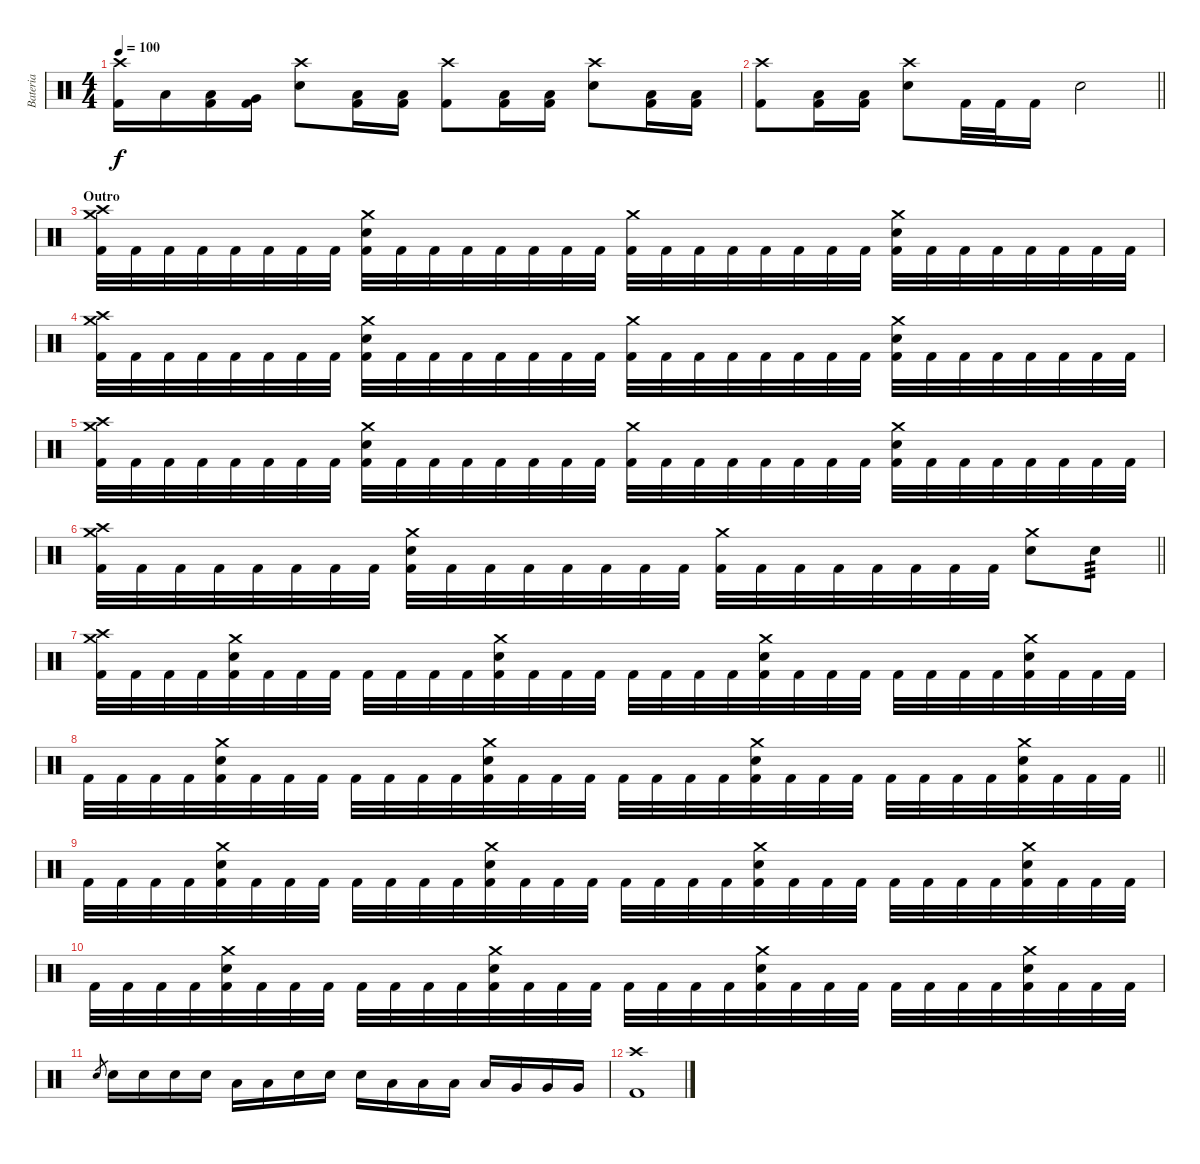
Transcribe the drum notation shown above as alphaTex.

\track ("Bateria" "Bateria") {instrument percussion}
\staff {score}
\articulation defaults
\ts (4 4)
\tempo 100
\clef neutral
\ks c
("Crash high (hit)" "Kick (hit) 2").16{dy f} "Low Tom (hit)".16 ("Low Tom (hit)" "Kick (hit) 2").16 ("Very Low Tom (hit)" "Kick (hit) 2").16 ("Crash high (hit)" "Snare (hit) 2").8 ("Low Tom (hit)" "Kick (hit) 2").16 ("Low Floor Tom (hit)" "Kick (hit) 2").16 ("Crash high (hit)" "Kick (hit) 2").8 ("Low Tom (hit)" "Kick (hit) 2").16 ("Low Floor Tom (hit)" "Kick (hit) 2").16 ("Crash high (hit)" "Snare (hit) 2").8 ("Low Tom (hit)" "Kick (hit) 2").16 ("Low Floor Tom (hit)" "Kick (hit) 2").16 |
\barLineRight lightlight
("Crash high (hit)" "Kick (hit) 2").8 ("Low Tom (hit)" "Kick (hit) 2").16 ("Low Floor Tom (hit)" "Kick (hit) 2").16 ("Crash high (hit)" "Snare (hit) 2").8 "Kick (hit) 2".32 "Kick (hit) 2".32 "Kick (hit) 2".16 "Snare (hit) 2".2 |
\section ("" "Outro")
("Crash high (hit)" "Crash medium (hit)" "Kick (hit) 2").32 "Kick (hit) 2".32 "Kick (hit) 2".32 "Kick (hit) 2".32 "Kick (hit) 2".32 "Kick (hit) 2".32 "Kick (hit) 2".32 "Kick (hit) 2".32 ("Crash medium (hit)" "Snare (hit) 2" "Kick (hit) 2").32 "Kick (hit) 2".32 "Kick (hit) 2".32 "Kick (hit) 2".32 "Kick (hit) 2".32 "Kick (hit) 2".32 "Kick (hit) 2".32 "Kick (hit) 2".32 ("Crash medium (hit)" "Kick (hit) 2").32 "Kick (hit) 2".32 "Kick (hit) 2".32 "Kick (hit) 2".32 "Kick (hit) 2".32 "Kick (hit) 2".32 "Kick (hit) 2".32 "Kick (hit) 2".32 ("Crash medium (hit)" "Snare (hit) 2" "Kick (hit) 2").32 "Kick (hit) 2".32 "Kick (hit) 2".32 "Kick (hit) 2".32 "Kick (hit) 2".32 "Kick (hit) 2".32 "Kick (hit) 2".32 "Kick (hit) 2".32 |
("Crash high (hit)" "Crash medium (hit)" "Kick (hit) 2").32 "Kick (hit) 2".32 "Kick (hit) 2".32 "Kick (hit) 2".32 "Kick (hit) 2".32 "Kick (hit) 2".32 "Kick (hit) 2".32 "Kick (hit) 2".32 ("Crash medium (hit)" "Snare (hit) 2" "Kick (hit) 2").32 "Kick (hit) 2".32 "Kick (hit) 2".32 "Kick (hit) 2".32 "Kick (hit) 2".32 "Kick (hit) 2".32 "Kick (hit) 2".32 "Kick (hit) 2".32 ("Crash medium (hit)" "Kick (hit) 2").32 "Kick (hit) 2".32 "Kick (hit) 2".32 "Kick (hit) 2".32 "Kick (hit) 2".32 "Kick (hit) 2".32 "Kick (hit) 2".32 "Kick (hit) 2".32 ("Crash medium (hit)" "Snare (hit) 2" "Kick (hit) 2").32 "Kick (hit) 2".32 "Kick (hit) 2".32 "Kick (hit) 2".32 "Kick (hit) 2".32 "Kick (hit) 2".32 "Kick (hit) 2".32 "Kick (hit) 2".32 |
("Crash high (hit)" "Crash medium (hit)" "Kick (hit) 2").32 "Kick (hit) 2".32 "Kick (hit) 2".32 "Kick (hit) 2".32 "Kick (hit) 2".32 "Kick (hit) 2".32 "Kick (hit) 2".32 "Kick (hit) 2".32 ("Crash medium (hit)" "Snare (hit) 2" "Kick (hit) 2").32 "Kick (hit) 2".32 "Kick (hit) 2".32 "Kick (hit) 2".32 "Kick (hit) 2".32 "Kick (hit) 2".32 "Kick (hit) 2".32 "Kick (hit) 2".32 ("Crash medium (hit)" "Kick (hit) 2").32 "Kick (hit) 2".32 "Kick (hit) 2".32 "Kick (hit) 2".32 "Kick (hit) 2".32 "Kick (hit) 2".32 "Kick (hit) 2".32 "Kick (hit) 2".32 ("Crash medium (hit)" "Snare (hit) 2" "Kick (hit) 2").32 "Kick (hit) 2".32 "Kick (hit) 2".32 "Kick (hit) 2".32 "Kick (hit) 2".32 "Kick (hit) 2".32 "Kick (hit) 2".32 "Kick (hit) 2".32 |
\barLineRight lightlight
("Crash high (hit)" "Crash medium (hit)" "Kick (hit) 2").32 "Kick (hit) 2".32 "Kick (hit) 2".32 "Kick (hit) 2".32 "Kick (hit) 2".32 "Kick (hit) 2".32 "Kick (hit) 2".32 "Kick (hit) 2".32 ("Crash medium (hit)" "Snare (hit) 2" "Kick (hit) 2").32 "Kick (hit) 2".32 "Kick (hit) 2".32 "Kick (hit) 2".32 "Kick (hit) 2".32 "Kick (hit) 2".32 "Kick (hit) 2".32 "Kick (hit) 2".32 ("Crash medium (hit)" "Kick (hit) 2").32 "Kick (hit) 2".32 "Kick (hit) 2".32 "Kick (hit) 2".32 "Kick (hit) 2".32 "Kick (hit) 2".32 "Kick (hit) 2".32 "Kick (hit) 2".32 ("Crash medium (hit)" "Snare (hit) 2").8 "Snare (hit) 2".8{tp 3} |
("Crash high (hit)" "Crash medium (hit)" "Kick (hit) 2").32 "Kick (hit) 2".32 "Kick (hit) 2".32 "Kick (hit) 2".32 ("Crash medium (hit)" "Snare (hit) 2" "Kick (hit) 2").32 "Kick (hit) 2".32 "Kick (hit) 2".32 "Kick (hit) 2".32 "Kick (hit) 2".32 "Kick (hit) 2".32 "Kick (hit) 2".32 "Kick (hit) 2".32 ("Crash medium (hit)" "Snare (hit) 2" "Kick (hit) 2").32 "Kick (hit) 2".32 "Kick (hit) 2".32 "Kick (hit) 2".32 "Kick (hit) 2".32 "Kick (hit) 2".32 "Kick (hit) 2".32 "Kick (hit) 2".32 ("Crash medium (hit)" "Snare (hit) 2" "Kick (hit) 2").32 "Kick (hit) 2".32 "Kick (hit) 2".32 "Kick (hit) 2".32 "Kick (hit) 2".32 "Kick (hit) 2".32 "Kick (hit) 2".32 "Kick (hit) 2".32 ("Crash medium (hit)" "Snare (hit) 2" "Kick (hit) 2").32 "Kick (hit) 2".32 "Kick (hit) 2".32 "Kick (hit) 2".32 |
\barLineRight lightlight "Kick (hit) 2".32 "Kick (hit) 2".32 "Kick (hit) 2".32 "Kick (hit) 2".32
("Crash medium (hit)" "Snare (hit) 2" "Kick (hit) 2").32 "Kick (hit) 2".32 "Kick (hit) 2".32 "Kick (hit) 2".32 "Kick (hit) 2".32 "Kick (hit) 2".32 "Kick (hit) 2".32 "Kick (hit) 2".32 ("Crash medium (hit)" "Snare (hit) 2" "Kick (hit) 2").32 "Kick (hit) 2".32 "Kick (hit) 2".32 "Kick (hit) 2".32 "Kick (hit) 2".32 "Kick (hit) 2".32 "Kick (hit) 2".32 "Kick (hit) 2".32 ("Crash medium (hit)" "Snare (hit) 2" "Kick (hit) 2").32 "Kick (hit) 2".32 "Kick (hit) 2".32 "Kick (hit) 2".32 "Kick (hit) 2".32 "Kick (hit) 2".32 "Kick (hit) 2".32 "Kick (hit) 2".32 ("Crash medium (hit)" "Snare (hit) 2" "Kick (hit) 2").32 "Kick (hit) 2".32 "Kick (hit) 2".32 "Kick (hit) 2".32 |
"Kick (hit) 2".32 "Kick (hit) 2".32 "Kick (hit) 2".32 "Kick (hit) 2".32 ("Crash medium (hit)" "Snare (hit) 2" "Kick (hit) 2").32 "Kick (hit) 2".32 "Kick (hit) 2".32 "Kick (hit) 2".32 "Kick (hit) 2".32 "Kick (hit) 2".32 "Kick (hit) 2".32 "Kick (hit) 2".32 ("Crash medium (hit)" "Snare (hit) 2" "Kick (hit) 2").32 "Kick (hit) 2".32 "Kick (hit) 2".32 "Kick (hit) 2".32 "Kick (hit) 2".32 "Kick (hit) 2".32 "Kick (hit) 2".32 "Kick (hit) 2".32 ("Crash medium (hit)" "Snare (hit) 2" "Kick (hit) 2").32 "Kick (hit) 2".32 "Kick (hit) 2".32 "Kick (hit) 2".32 "Kick (hit) 2".32 "Kick (hit) 2".32 "Kick (hit) 2".32 "Kick (hit) 2".32 ("Crash medium (hit)" "Snare (hit) 2" "Kick (hit) 2").32 "Kick (hit) 2".32 "Kick (hit) 2".32 "Kick (hit) 2".32 |
"Kick (hit) 2".32 "Kick (hit) 2".32 "Kick (hit) 2".32 "Kick (hit) 2".32 ("Crash medium (hit)" "Snare (hit) 2" "Kick (hit) 2").32 "Kick (hit) 2".32 "Kick (hit) 2".32 "Kick (hit) 2".32 "Kick (hit) 2".32 "Kick (hit) 2".32 "Kick (hit) 2".32 "Kick (hit) 2".32 ("Crash medium (hit)" "Snare (hit) 2" "Kick (hit) 2").32 "Kick (hit) 2".32 "Kick (hit) 2".32 "Kick (hit) 2".32 "Kick (hit) 2".32 "Kick (hit) 2".32 "Kick (hit) 2".32 "Kick (hit) 2".32 ("Crash medium (hit)" "Snare (hit) 2" "Kick (hit) 2").32 "Kick (hit) 2".32 "Kick (hit) 2".32 "Kick (hit) 2".32 "Kick (hit) 2".32 "Kick (hit) 2".32 "Kick (hit) 2".32 "Kick (hit) 2".32 ("Crash medium (hit)" "Snare (hit) 2" "Kick (hit) 2").32 "Kick (hit) 2".32 "Kick (hit) 2".32 "Kick (hit) 2".32 |
"Snare (hit) 2".8{gr} "Snare (hit) 2".16 "Snare (hit) 2".16 "Snare (hit) 2".16 "Snare (hit) 2".16 "Low Tom (hit)".16 "Low Tom (hit)".16 "Snare (hit) 2".16 "Snare (hit) 2".16 "Snare (hit) 2".16 "Low Tom (hit)".16 "Low Tom (hit)".16 "Low Tom (hit)".16 "Low Tom (hit)".16 "Very Low Tom (hit)".16 "Very Low Tom (hit)".16 "Very Low Tom (hit)".16 |
("Crash high (hit)" "Kick (hit) 2").1
